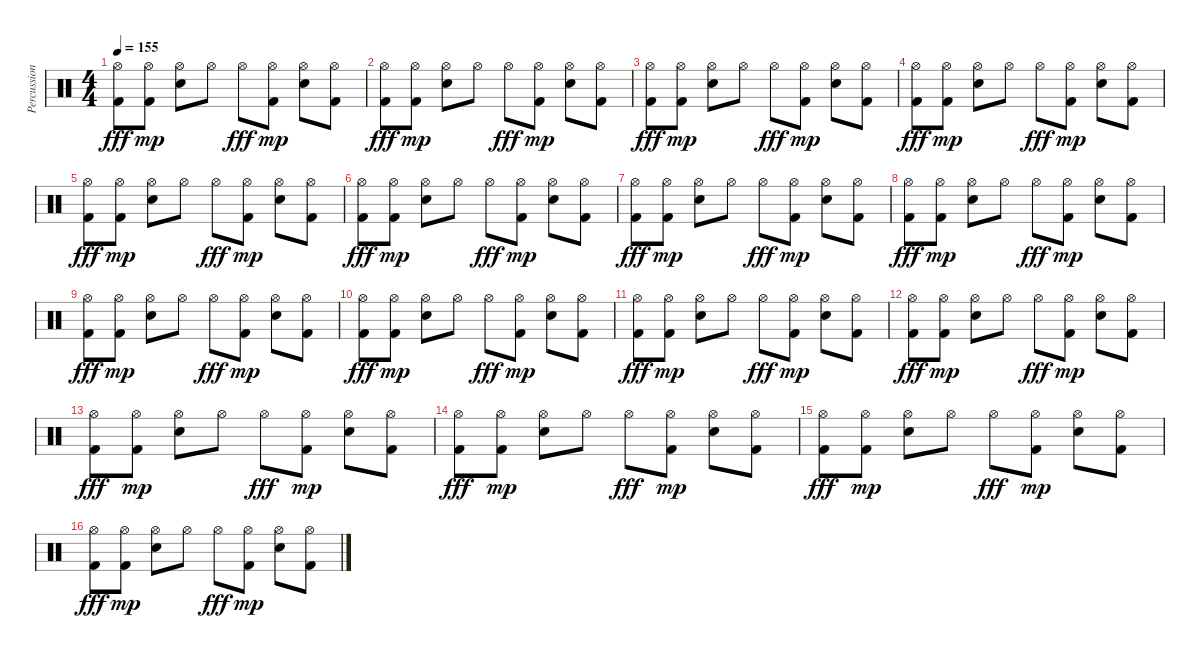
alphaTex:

\track ("Percussion" "Percussion") {instrument percussion}
\staff {score}
\articulation defaults
\ts (4 4)
\tempo 155
\clef neutral
\ks c
("Kick (hit) 2" "Hi-Hat (open)").8{dy fff} ("Kick (hit) 2" "Hi-Hat (open)").8{dy mp} ("Snare (hit) 2" "Hi-Hat (open)").8 "Hi-Hat (open)".8 "Hi-Hat (open)".8{dy fff} ("Kick (hit) 2" "Hi-Hat (open)").8{dy mp} ("Snare (hit) 2" "Hi-Hat (open)").8 ("Kick (hit) 2" "Hi-Hat (open)").8 |
("Kick (hit) 2" "Hi-Hat (open)").8{dy fff} ("Kick (hit) 2" "Hi-Hat (open)").8{dy mp} ("Snare (hit) 2" "Hi-Hat (open)").8 "Hi-Hat (open)".8 "Hi-Hat (open)".8{dy fff} ("Kick (hit) 2" "Hi-Hat (open)").8{dy mp} ("Snare (hit) 2" "Hi-Hat (open)").8 ("Kick (hit) 2" "Hi-Hat (open)").8 |
("Kick (hit) 2" "Hi-Hat (open)").8{dy fff} ("Kick (hit) 2" "Hi-Hat (open)").8{dy mp} ("Snare (hit) 2" "Hi-Hat (open)").8 "Hi-Hat (open)".8 "Hi-Hat (open)".8{dy fff} ("Kick (hit) 2" "Hi-Hat (open)").8{dy mp} ("Snare (hit) 2" "Hi-Hat (open)").8 ("Kick (hit) 2" "Hi-Hat (open)").8 |
("Kick (hit) 2" "Hi-Hat (open)").8{dy fff} ("Kick (hit) 2" "Hi-Hat (open)").8{dy mp} ("Snare (hit) 2" "Hi-Hat (open)").8 "Hi-Hat (open)".8 "Hi-Hat (open)".8{dy fff} ("Kick (hit) 2" "Hi-Hat (open)").8{dy mp} ("Snare (hit) 2" "Hi-Hat (open)").8 ("Kick (hit) 2" "Hi-Hat (open)").8 |
("Kick (hit) 2" "Hi-Hat (open)").8{dy fff} ("Kick (hit) 2" "Hi-Hat (open)").8{dy mp} ("Snare (hit) 2" "Hi-Hat (open)").8 "Hi-Hat (open)".8 "Hi-Hat (open)".8{dy fff} ("Kick (hit) 2" "Hi-Hat (open)").8{dy mp} ("Snare (hit) 2" "Hi-Hat (open)").8 ("Kick (hit) 2" "Hi-Hat (open)").8 |
("Kick (hit) 2" "Hi-Hat (open)").8{dy fff} ("Kick (hit) 2" "Hi-Hat (open)").8{dy mp} ("Snare (hit) 2" "Hi-Hat (open)").8 "Hi-Hat (open)".8 "Hi-Hat (open)".8{dy fff} ("Kick (hit) 2" "Hi-Hat (open)").8{dy mp} ("Snare (hit) 2" "Hi-Hat (open)").8 ("Kick (hit) 2" "Hi-Hat (open)").8 |
("Kick (hit) 2" "Hi-Hat (open)").8{dy fff} ("Kick (hit) 2" "Hi-Hat (open)").8{dy mp} ("Snare (hit) 2" "Hi-Hat (open)").8 "Hi-Hat (open)".8 "Hi-Hat (open)".8{dy fff} ("Kick (hit) 2" "Hi-Hat (open)").8{dy mp} ("Snare (hit) 2" "Hi-Hat (open)").8 ("Kick (hit) 2" "Hi-Hat (open)").8 |
("Kick (hit) 2" "Hi-Hat (open)").8{dy fff} ("Kick (hit) 2" "Hi-Hat (open)").8{dy mp} ("Snare (hit) 2" "Hi-Hat (open)").8 "Hi-Hat (open)".8 "Hi-Hat (open)".8{dy fff} ("Kick (hit) 2" "Hi-Hat (open)").8{dy mp} ("Snare (hit) 2" "Hi-Hat (open)").8 ("Kick (hit) 2" "Hi-Hat (open)").8 |
("Kick (hit) 2" "Hi-Hat (open)").8{dy fff} ("Kick (hit) 2" "Hi-Hat (open)").8{dy mp} ("Snare (hit) 2" "Hi-Hat (open)").8 "Hi-Hat (open)".8 "Hi-Hat (open)".8{dy fff} ("Kick (hit) 2" "Hi-Hat (open)").8{dy mp} ("Snare (hit) 2" "Hi-Hat (open)").8 ("Kick (hit) 2" "Hi-Hat (open)").8 |
("Kick (hit) 2" "Hi-Hat (open)").8{dy fff} ("Kick (hit) 2" "Hi-Hat (open)").8{dy mp} ("Snare (hit) 2" "Hi-Hat (open)").8 "Hi-Hat (open)".8 "Hi-Hat (open)".8{dy fff} ("Kick (hit) 2" "Hi-Hat (open)").8{dy mp} ("Snare (hit) 2" "Hi-Hat (open)").8 ("Kick (hit) 2" "Hi-Hat (open)").8 |
("Kick (hit) 2" "Hi-Hat (open)").8{dy fff} ("Kick (hit) 2" "Hi-Hat (open)").8{dy mp} ("Snare (hit) 2" "Hi-Hat (open)").8 "Hi-Hat (open)".8 "Hi-Hat (open)".8{dy fff} ("Kick (hit) 2" "Hi-Hat (open)").8{dy mp} ("Snare (hit) 2" "Hi-Hat (open)").8 ("Kick (hit) 2" "Hi-Hat (open)").8 |
("Kick (hit) 2" "Hi-Hat (open)").8{dy fff} ("Kick (hit) 2" "Hi-Hat (open)").8{dy mp} ("Snare (hit) 2" "Hi-Hat (open)").8 "Hi-Hat (open)".8 "Hi-Hat (open)".8{dy fff} ("Kick (hit) 2" "Hi-Hat (open)").8{dy mp} ("Snare (hit) 2" "Hi-Hat (open)").8 ("Kick (hit) 2" "Hi-Hat (open)").8 |
("Kick (hit) 2" "Hi-Hat (open)").8{dy fff} ("Kick (hit) 2" "Hi-Hat (open)").8{dy mp} ("Snare (hit) 2" "Hi-Hat (open)").8 "Hi-Hat (open)".8 "Hi-Hat (open)".8{dy fff} ("Kick (hit) 2" "Hi-Hat (open)").8{dy mp} ("Snare (hit) 2" "Hi-Hat (open)").8 ("Kick (hit) 2" "Hi-Hat (open)").8 |
("Kick (hit) 2" "Hi-Hat (open)").8{dy fff} ("Kick (hit) 2" "Hi-Hat (open)").8{dy mp} ("Snare (hit) 2" "Hi-Hat (open)").8 "Hi-Hat (open)".8 "Hi-Hat (open)".8{dy fff} ("Kick (hit) 2" "Hi-Hat (open)").8{dy mp} ("Snare (hit) 2" "Hi-Hat (open)").8 ("Kick (hit) 2" "Hi-Hat (open)").8 |
("Kick (hit) 2" "Hi-Hat (open)").8{dy fff} ("Kick (hit) 2" "Hi-Hat (open)").8{dy mp} ("Snare (hit) 2" "Hi-Hat (open)").8 "Hi-Hat (open)".8 "Hi-Hat (open)".8{dy fff} ("Kick (hit) 2" "Hi-Hat (open)").8{dy mp} ("Snare (hit) 2" "Hi-Hat (open)").8 ("Kick (hit) 2" "Hi-Hat (open)").8 |
("Kick (hit) 2" "Hi-Hat (open)").8{dy fff} ("Kick (hit) 2" "Hi-Hat (open)").8{dy mp} ("Snare (hit) 2" "Hi-Hat (open)").8 "Hi-Hat (open)".8 "Hi-Hat (open)".8{dy fff} ("Kick (hit) 2" "Hi-Hat (open)").8{dy mp} ("Snare (hit) 2" "Hi-Hat (open)").8 ("Kick (hit) 2" "Hi-Hat (open)").8
